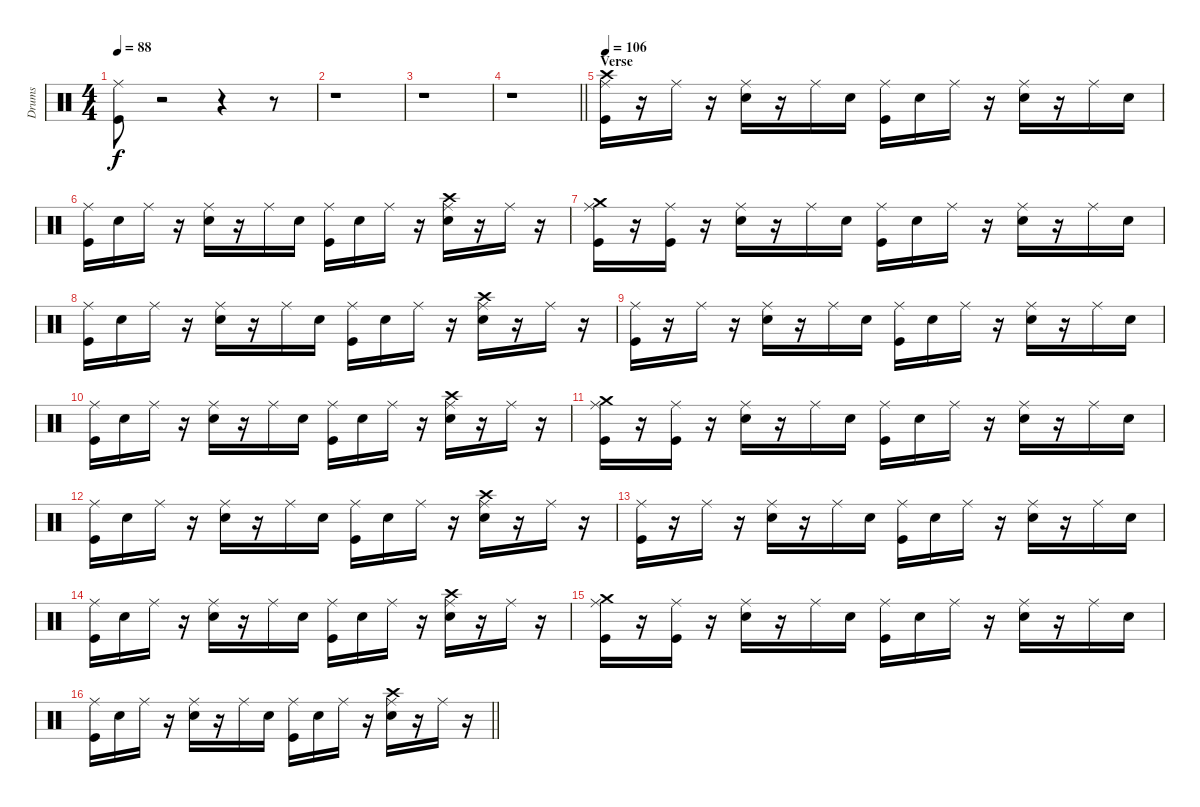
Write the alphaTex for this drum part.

\track ("Drums" "Drums") {instrument percussion}
\staff {score}
\articulation defaults
\ts (4 4)
\tempo 88
\clef neutral
\ks c
("Ride (middle)" "Kick (hit)").8{dy f} r.2 r.4 r.8 |
r.1 |
r.1 |
\barLineRight lightlight
r.1 |
\section ("" "Verse")
\tempo 106
("Crash high (hit)" "Ride (middle)" "Kick (hit)").16 r.16 "Ride (middle)".16 r.16 ("Ride (middle)" "Electric Snare (hit)").16 r.16 "Ride (middle)".16 "Electric Snare (hit)".16 ("Ride (middle)" "Kick (hit)").16 "Electric Snare (hit)".16 "Ride (middle)".16 r.16 ("Ride (middle)" "Electric Snare (hit)").16 r.16 "Ride (middle)".16 "Electric Snare (hit)".16 |
("Ride (middle)" "Kick (hit)").16 "Electric Snare (hit)".16 "Ride (middle)".16 r.16 ("Ride (middle)" "Electric Snare (hit)").16 r.16 "Ride (middle)".16 "Electric Snare (hit)".16 ("Ride (middle)" "Kick (hit)").16 "Electric Snare (hit)".16 "Ride (middle)".16 r.16 ("Crash high (hit)" "Ride (middle)" "Electric Snare (hit)").16 r.16 "Ride (middle)".16 r.16 |
("Crash medium (hit)" "Ride (middle)" "Kick (hit)").16 r.16 ("Ride (middle)" "Kick (hit)").16 r.16 ("Ride (middle)" "Electric Snare (hit)").16 r.16 "Ride (middle)".16 "Electric Snare (hit)".16 ("Ride (middle)" "Kick (hit)").16 "Electric Snare (hit)".16 "Ride (middle)".16 r.16 ("Ride (middle)" "Electric Snare (hit)").16 r.16 "Ride (middle)".16 "Electric Snare (hit)".16 |
("Ride (middle)" "Kick (hit)").16 "Electric Snare (hit)".16 "Ride (middle)".16 r.16 ("Ride (middle)" "Electric Snare (hit)").16 r.16 "Ride (middle)".16 "Electric Snare (hit)".16 ("Ride (middle)" "Kick (hit)").16 "Electric Snare (hit)".16 "Ride (middle)".16 r.16 ("Crash high (hit)" "Ride (middle)" "Electric Snare (hit)").16 r.16 "Ride (middle)".16 r.16 |
("Ride (middle)" "Kick (hit)").16 r.16 "Ride (middle)".16 r.16 ("Ride (middle)" "Electric Snare (hit)").16 r.16 "Ride (middle)".16 "Electric Snare (hit)".16 ("Ride (middle)" "Kick (hit)").16 "Electric Snare (hit)".16 "Ride (middle)".16 r.16 ("Ride (middle)" "Electric Snare (hit)").16 r.16 "Ride (middle)".16 "Electric Snare (hit)".16 |
("Ride (middle)" "Kick (hit)").16 "Electric Snare (hit)".16 "Ride (middle)".16 r.16 ("Ride (middle)" "Electric Snare (hit)").16 r.16 "Ride (middle)".16 "Electric Snare (hit)".16 ("Ride (middle)" "Kick (hit)").16 "Electric Snare (hit)".16 "Ride (middle)".16 r.16 ("Crash high (hit)" "Ride (middle)" "Electric Snare (hit)").16 r.16 "Ride (middle)".16 r.16 |
("Crash medium (hit)" "Ride (middle)" "Kick (hit)").16 r.16 ("Ride (middle)" "Kick (hit)").16 r.16 ("Ride (middle)" "Electric Snare (hit)").16 r.16 "Ride (middle)".16 "Electric Snare (hit)".16 ("Ride (middle)" "Kick (hit)").16 "Electric Snare (hit)".16 "Ride (middle)".16 r.16 ("Ride (middle)" "Electric Snare (hit)").16 r.16 "Ride (middle)".16 "Electric Snare (hit)".16 |
("Ride (middle)" "Kick (hit)").16 "Electric Snare (hit)".16 "Ride (middle)".16 r.16 ("Ride (middle)" "Electric Snare (hit)").16 r.16 "Ride (middle)".16 "Electric Snare (hit)".16 ("Ride (middle)" "Kick (hit)").16 "Electric Snare (hit)".16 "Ride (middle)".16 r.16 ("Crash high (hit)" "Ride (middle)" "Electric Snare (hit)").16 r.16 "Ride (middle)".16 r.16 |
("Ride (middle)" "Kick (hit)").16 r.16 "Ride (middle)".16 r.16 ("Ride (middle)" "Electric Snare (hit)").16 r.16 "Ride (middle)".16 "Electric Snare (hit)".16 ("Ride (middle)" "Kick (hit)").16 "Electric Snare (hit)".16 "Ride (middle)".16 r.16 ("Ride (middle)" "Electric Snare (hit)").16 r.16 "Ride (middle)".16 "Electric Snare (hit)".16 |
("Ride (middle)" "Kick (hit)").16 "Electric Snare (hit)".16 "Ride (middle)".16 r.16 ("Ride (middle)" "Electric Snare (hit)").16 r.16 "Ride (middle)".16 "Electric Snare (hit)".16 ("Ride (middle)" "Kick (hit)").16 "Electric Snare (hit)".16 "Ride (middle)".16 r.16 ("Crash high (hit)" "Ride (middle)" "Electric Snare (hit)").16 r.16 "Ride (middle)".16 r.16 |
("Crash medium (hit)" "Ride (middle)" "Kick (hit)").16 r.16 ("Ride (middle)" "Kick (hit)").16 r.16 ("Ride (middle)" "Electric Snare (hit)").16 r.16 "Ride (middle)".16 "Electric Snare (hit)".16 ("Ride (middle)" "Kick (hit)").16 "Electric Snare (hit)".16 "Ride (middle)".16 r.16 ("Ride (middle)" "Electric Snare (hit)").16 r.16 "Ride (middle)".16 "Electric Snare (hit)".16 |
\barLineRight lightlight
("Ride (middle)" "Kick (hit)").16 "Electric Snare (hit)".16 "Ride (middle)".16 r.16 ("Ride (middle)" "Electric Snare (hit)").16 r.16 "Ride (middle)".16 "Electric Snare (hit)".16 ("Ride (middle)" "Kick (hit)").16 "Electric Snare (hit)".16 "Ride (middle)".16 r.16 ("Crash high (hit)" "Ride (middle)" "Electric Snare (hit)").16 r.16 "Ride (middle)".16 r.16
